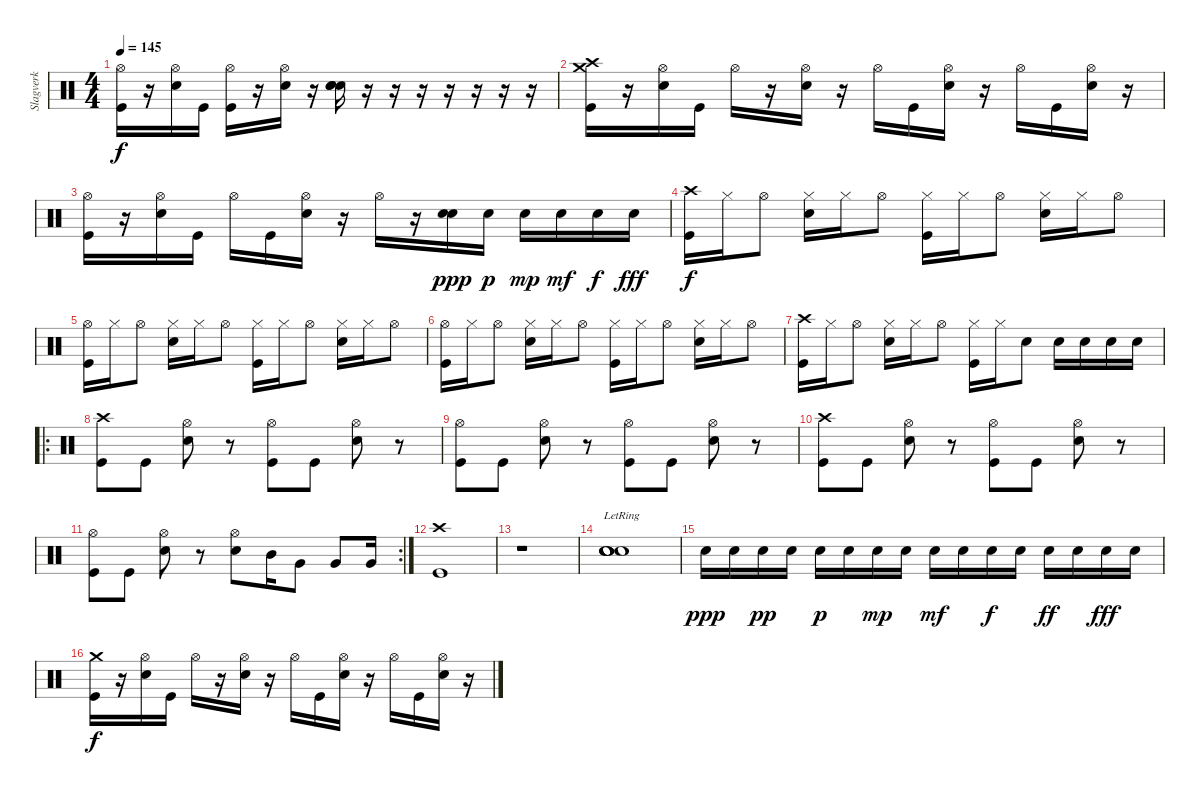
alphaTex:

\track ("Slagverk" "Slagverk") {instrument percussion}
\staff {score}
\articulation defaults
\ts (4 4)
\tempo 145
\clef neutral
\ks c
("Hi-Hat (open)" "Kick (hit)").16{dy f} r.16 ("Hi-Hat (open)" "Snare (hit) 2").16 "Kick (hit)".16 ("Hi-Hat (open)" "Kick (hit)").16 r.16 ("Hi-Hat (open)" "Snare (hit) 2").16 r.16 ("Snare (hit) 2" "Snare (hit) 2" "Snare (hit) 2").16 r.16 r.16 r.16 r.16 r.16 r.16 r.16 |
("Crash medium (hit)" "Kick (hit)" "Crash high (hit)").16 r.16 ("Hi-Hat (open)" "Snare (hit) 2").16 "Kick (hit)".16 "Hi-Hat (open)".16 r.16 ("Hi-Hat (open)" "Snare (hit) 2").16 r.16 "Hi-Hat (open)".16 "Kick (hit)".16 ("Hi-Hat (open)" "Snare (hit) 2").16 r.16 "Hi-Hat (open)".16 "Kick (hit)".16 ("Hi-Hat (open)" "Snare (hit) 2").16 r.16 |
("Hi-Hat (open)" "Kick (hit)").16 r.16 ("Hi-Hat (open)" "Snare (hit) 2").16 "Kick (hit)".16 "Hi-Hat (open)".16 "Kick (hit)".16 ("Hi-Hat (open)" "Snare (hit) 2").16 r.16 "Hi-Hat (open)".16 r.16 ("Snare (hit) 2" "Snare (hit) 2").16{dy ppp} "Snare (hit) 2".16{dy p} "Snare (hit) 2".16{dy mp} "Snare (hit) 2".16{dy mf} "Snare (hit) 2".16{dy f} "Snare (hit) 2".16{dy fff} |
("Crash high (hit)" "Kick (hit)").16{dy f} "Hi-Hat (closed)".16 "Hi-Hat (open)".8 ("Hi-Hat (closed)" "Snare (hit) 2").16 "Hi-Hat (closed)".16 "Hi-Hat (open)".8 ("Hi-Hat (closed)" "Kick (hit)").16 "Hi-Hat (closed)".16 "Hi-Hat (open)".8 ("Hi-Hat (closed)" "Snare (hit) 2").16 "Hi-Hat (closed)".16 "Hi-Hat (open)".8 |
("Hi-Hat (open)" "Kick (hit)").16 "Hi-Hat (closed)".16 "Hi-Hat (open)".8 ("Hi-Hat (closed)" "Snare (hit) 2").16 "Hi-Hat (closed)".16 "Hi-Hat (open)".8 ("Hi-Hat (closed)" "Kick (hit)").16 "Hi-Hat (closed)".16 "Hi-Hat (open)".8 ("Hi-Hat (closed)" "Snare (hit) 2").16 "Hi-Hat (closed)".16 "Hi-Hat (open)".8 |
("Hi-Hat (open)" "Kick (hit)").16 "Hi-Hat (closed)".16 "Hi-Hat (open)".8 ("Hi-Hat (closed)" "Snare (hit) 2").16 "Hi-Hat (closed)".16 "Hi-Hat (open)".8 ("Hi-Hat (closed)" "Kick (hit)").16 "Hi-Hat (closed)".16 "Hi-Hat (open)".8 ("Hi-Hat (closed)" "Snare (hit) 2").16 "Hi-Hat (closed)".16 "Hi-Hat (open)".8 |
("Crash high (hit)" "Kick (hit)").16 "Hi-Hat (closed)".16 "Hi-Hat (open)".8 ("Hi-Hat (closed)" "Snare (hit) 2").16 "Hi-Hat (closed)".16 "Hi-Hat (open)".8 ("Hi-Hat (closed)" "Kick (hit)").16 "Hi-Hat (closed)".16 "Snare (hit) 2".8 "Snare (hit) 2".16 "Snare (hit) 2".16 "Snare (hit) 2".16 "Snare (hit) 2".16 |
\ro
("Crash high (hit)" "Kick (hit)").8 "Kick (hit)".8 ("Hi-Hat (open)" "Snare (hit) 2").8 r.8 ("Hi-Hat (open)" "Kick (hit)").8 "Kick (hit)".8 ("Hi-Hat (open)" "Snare (hit) 2").8 r.8 |
("Hi-Hat (open)" "Kick (hit)").8 "Kick (hit)".8 ("Hi-Hat (open)" "Snare (hit) 2").8 r.8 ("Hi-Hat (open)" "Kick (hit)").8 "Kick (hit)".8 ("Hi-Hat (open)" "Snare (hit) 2").8 r.8 |
("Crash high (hit)" "Kick (hit)").8 "Kick (hit)".8 ("Hi-Hat (open)" "Snare (hit) 2").8 r.8 ("Hi-Hat (open)" "Kick (hit)").8 "Kick (hit)".8 ("Hi-Hat (open)" "Snare (hit) 2").8 r.8 |
\rc 2
("Hi-Hat (open)" "Kick (hit)").8 "Kick (hit)".8 ("Hi-Hat (open)" "Snare (hit) 2").8 r.8 ("Hi-Hat (open)" "Snare (hit) 2").8 "Mid Tom (hit)".16 "Very Low Tom (hit)".8 "Very Low Tom (hit)".8 "Very Low Tom (hit)".16 |
("Crash high (hit)" "Kick (hit)").1 |
r.1 |
("Snare (hit) 2"{lr} "Snare (hit) 2"{lr} "Snare (hit) 2"{lr} "Snare (hit) 2"{lr}).1 |
"Snare (hit) 2".16{dy ppp} "Snare (hit) 2".16 "Snare (hit) 2".16{dy pp} "Snare (hit) 2".16 "Snare (hit) 2".16{dy p} "Snare (hit) 2".16 "Snare (hit) 2".16{dy mp} "Snare (hit) 2".16 "Snare (hit) 2".16{dy mf} "Snare (hit) 2".16 "Snare (hit) 2".16{dy f} "Snare (hit) 2".16 "Snare (hit) 2".16{dy ff} "Snare (hit) 2".16 "Snare (hit) 2".16{dy fff} "Snare (hit) 2".16 |
("Crash medium (hit)" "Kick (hit)").16{dy f} r.16 ("Hi-Hat (open)" "Snare (hit) 2").16 "Kick (hit)".16 "Hi-Hat (open)".16 r.16 ("Hi-Hat (open)" "Snare (hit) 2").16 r.16 "Hi-Hat (open)".16 "Kick (hit)".16 ("Hi-Hat (open)" "Snare (hit) 2").16 r.16 "Hi-Hat (open)".16 "Kick (hit)".16 ("Hi-Hat (open)" "Snare (hit) 2").16 r.16
